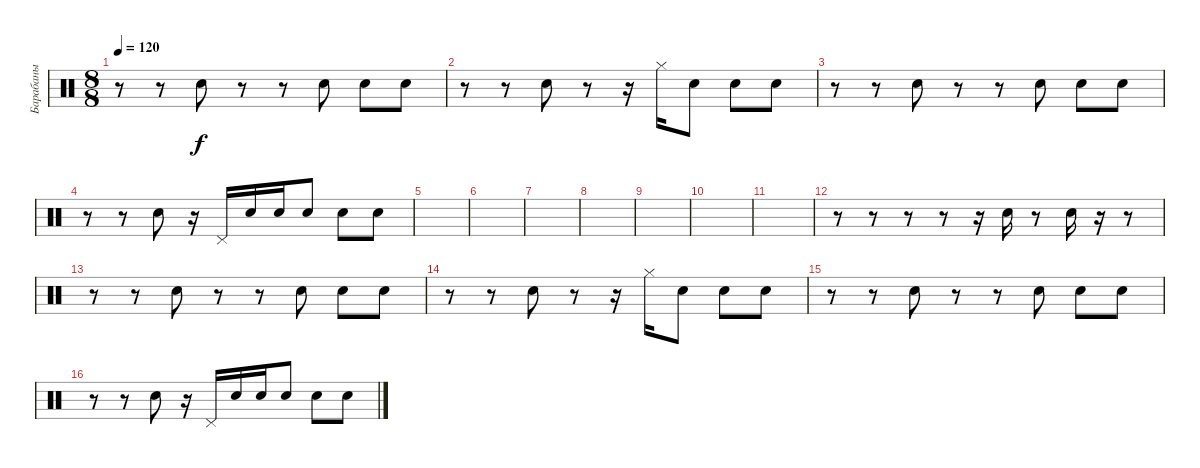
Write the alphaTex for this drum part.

\track ("Барабаны" "Барабаны") {instrument percussion}
\staff {score}
\articulation defaults
\ts (8 8)
\tempo 120
\clef neutral
\ks c
r.8{dy f} r.8 "Electric Snare (hit)".8 r.8 r.8 "Electric Snare (hit)".8 "Hand Clap (hit)".8 "Electric Snare (hit)".8 |
r.8 r.8 "Electric Snare (hit)".8 r.8 r.16 "Hi-Hat (closed)".16 "Electric Snare (hit)".8 "Hand Clap (hit)".8 "Electric Snare (hit)".8 |
r.8 r.8 "Electric Snare (hit)".8 r.8 r.8 "Electric Snare (hit)".8 "Hand Clap (hit)".8 "Electric Snare (hit)".8 |
r.8 r.8 "Electric Snare (hit)".8 r.16 "Pedal Hi-Hat (hit)".16 "Electric Snare (hit)".16 "Electric Snare (hit)".16 "Electric Snare (hit)".8 "Hand Clap (hit)".8 "Electric Snare (hit)".8 |
|
|
|
|
|
|
|
r.8 r.8 r.8 r.8 r.16 "Electric Snare (hit)".16 r.8 "Electric Snare (hit)".16 r.16 r.8 |
r.8 r.8 "Electric Snare (hit)".8 r.8 r.8 "Electric Snare (hit)".8 "Hand Clap (hit)".8 "Electric Snare (hit)".8 |
r.8 r.8 "Electric Snare (hit)".8 r.8 r.16 "Hi-Hat (closed)".16 "Electric Snare (hit)".8 "Hand Clap (hit)".8 "Electric Snare (hit)".8 |
r.8 r.8 "Electric Snare (hit)".8 r.8 r.8 "Electric Snare (hit)".8 "Hand Clap (hit)".8 "Electric Snare (hit)".8 |
r.8 r.8 "Electric Snare (hit)".8 r.16 "Pedal Hi-Hat (hit)".16 "Electric Snare (hit)".16 "Electric Snare (hit)".16 "Electric Snare (hit)".8 "Hand Clap (hit)".8 "Electric Snare (hit)".8
